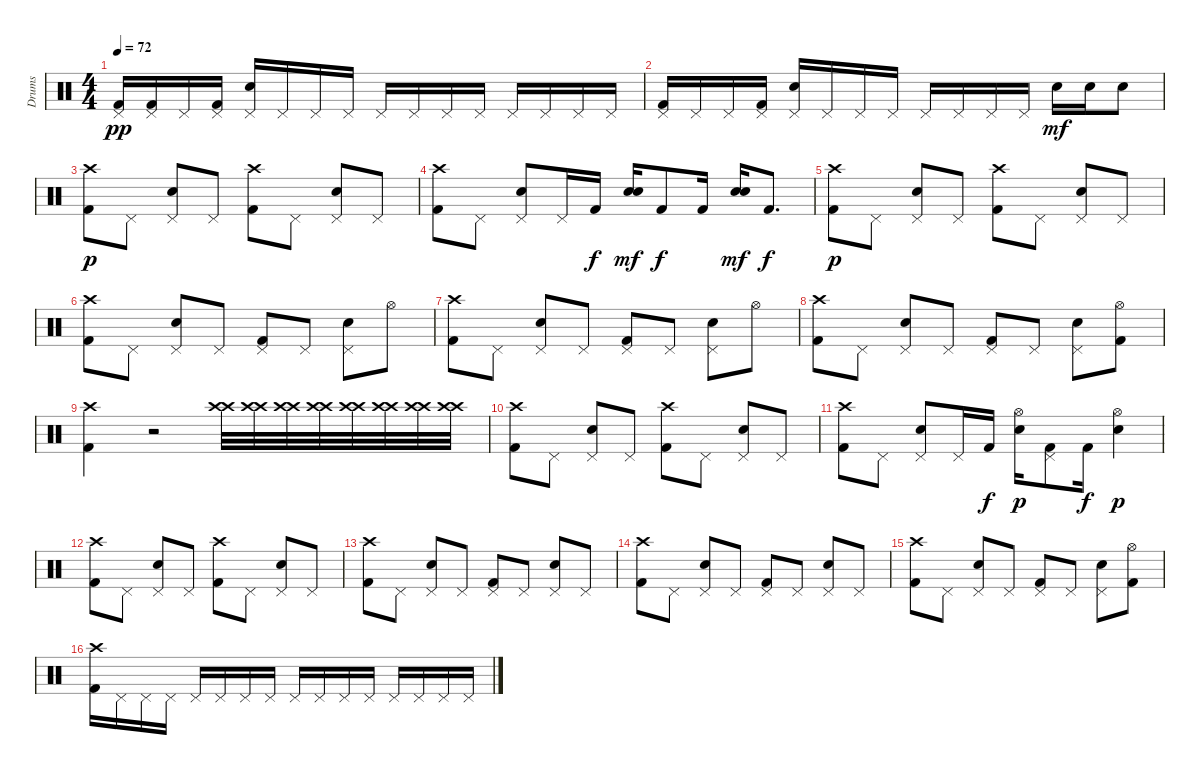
\track ("Drums" "Drums") {instrument percussion}
\staff {score}
\articulation defaults
\ts (4 4)
\tempo 72
\clef neutral
\ks c
("Kick (hit) 2" "Pedal Hi-Hat (hit)").16{dy pp} ("Kick (hit) 2" "Pedal Hi-Hat (hit)").16 "Pedal Hi-Hat (hit)".16 ("Kick (hit) 2" "Pedal Hi-Hat (hit)").16 ("Snare (hit) 2" "Pedal Hi-Hat (hit)").16 "Pedal Hi-Hat (hit)".16 "Pedal Hi-Hat (hit)".16 "Pedal Hi-Hat (hit)".16 "Pedal Hi-Hat (hit)".16 "Pedal Hi-Hat (hit)".16 "Pedal Hi-Hat (hit)".16 "Pedal Hi-Hat (hit)".16 "Pedal Hi-Hat (hit)".16 "Pedal Hi-Hat (hit)".16 "Pedal Hi-Hat (hit)".16 "Pedal Hi-Hat (hit)".16 |
("Kick (hit) 2" "Pedal Hi-Hat (hit)").16 "Pedal Hi-Hat (hit)".16 "Pedal Hi-Hat (hit)".16 ("Kick (hit) 2" "Pedal Hi-Hat (hit)").16 ("Snare (hit) 2" "Pedal Hi-Hat (hit)").16 "Pedal Hi-Hat (hit)".16 "Pedal Hi-Hat (hit)".16 "Pedal Hi-Hat (hit)".16 "Pedal Hi-Hat (hit)".16 "Pedal Hi-Hat (hit)".16 "Pedal Hi-Hat (hit)".16 "Pedal Hi-Hat (hit)".16 "Snare (hit) 2".16{dy mf} "Snare (hit) 2".16 "Snare (hit) 2".8 |
("Kick (hit) 2" "Crash high (hit)").8{dy p} "Pedal Hi-Hat (hit)".8 ("Snare (hit) 2" "Pedal Hi-Hat (hit)").8 "Pedal Hi-Hat (hit)".8 ("Kick (hit) 2" "Crash high (hit)").8 "Pedal Hi-Hat (hit)".8 ("Snare (hit) 2" "Pedal Hi-Hat (hit)").8 "Pedal Hi-Hat (hit)".8 |
("Kick (hit) 2" "Crash high (hit)").8 "Pedal Hi-Hat (hit)".8 ("Snare (hit) 2" "Pedal Hi-Hat (hit)").8 "Pedal Hi-Hat (hit)".16 "Kick (hit) 2".16{dy f} ("Snare (hit) 2" "Snare (hit) 2").16{dy mf} "Kick (hit) 2".8{dy f} "Kick (hit) 2".16 ("Snare (hit) 2" "Snare (hit) 2").16{dy mf} "Kick (hit) 2".8{d dy f} |
("Kick (hit) 2" "Crash high (hit)").8{dy p} "Pedal Hi-Hat (hit)".8 ("Snare (hit) 2" "Pedal Hi-Hat (hit)").8 "Pedal Hi-Hat (hit)".8 ("Kick (hit) 2" "Crash high (hit)").8 "Pedal Hi-Hat (hit)".8 ("Snare (hit) 2" "Pedal Hi-Hat (hit)").8 "Pedal Hi-Hat (hit)".8 |
("Kick (hit) 2" "Crash high (hit)").8 "Pedal Hi-Hat (hit)".8 ("Snare (hit) 2" "Pedal Hi-Hat (hit)").8 "Pedal Hi-Hat (hit)".8 ("Kick (hit) 2" "Pedal Hi-Hat (hit)").8 "Pedal Hi-Hat (hit)".8 ("Snare (hit) 2" "Pedal Hi-Hat (hit)").8 "Hi-Hat (open)".8 |
("Kick (hit) 2" "Crash high (hit)").8 "Pedal Hi-Hat (hit)".8 ("Snare (hit) 2" "Pedal Hi-Hat (hit)").8 "Pedal Hi-Hat (hit)".8 ("Kick (hit) 2" "Pedal Hi-Hat (hit)").8 "Pedal Hi-Hat (hit)".8 ("Snare (hit) 2" "Pedal Hi-Hat (hit)").8 "Hi-Hat (open)".8 |
("Kick (hit) 2" "Crash high (hit)").8 "Pedal Hi-Hat (hit)".8 ("Snare (hit) 2" "Pedal Hi-Hat (hit)").8 "Pedal Hi-Hat (hit)".8 ("Kick (hit) 2" "Pedal Hi-Hat (hit)").8 "Pedal Hi-Hat (hit)".8 ("Snare (hit) 2" "Pedal Hi-Hat (hit)").8 ("Kick (hit) 2" "Hi-Hat (open)").8 |
("Kick (hit) 2" "Crash high (hit)").4 r.2 ("Crash high (hit)" "Crash high (hit)").32 ("Crash high (hit)" "Crash high (hit)").32 ("Crash high (hit)" "Crash high (hit)").32 ("Crash high (hit)" "Crash high (hit)").32 ("Crash high (hit)" "Crash high (hit)").32 ("Crash high (hit)" "Crash high (hit)").32 ("Crash high (hit)" "Crash high (hit)").32 ("Crash high (hit)" "Crash high (hit)").32 |
("Kick (hit) 2" "Crash high (hit)").8 "Pedal Hi-Hat (hit)".8 ("Snare (hit) 2" "Pedal Hi-Hat (hit)").8 "Pedal Hi-Hat (hit)".8 ("Kick (hit) 2" "Crash high (hit)").8 "Pedal Hi-Hat (hit)".8 ("Snare (hit) 2" "Pedal Hi-Hat (hit)").8 "Pedal Hi-Hat (hit)".8 |
("Kick (hit) 2" "Crash high (hit)").8 "Pedal Hi-Hat (hit)".8 ("Snare (hit) 2" "Pedal Hi-Hat (hit)").8 "Pedal Hi-Hat (hit)".16 "Kick (hit) 2".16{dy f} ("Snare (hit) 2" "Hi-Hat (open)").16{dy p} ("Kick (hit) 2" "Pedal Hi-Hat (hit)").8 "Kick (hit) 2".16{dy f} ("Snare (hit) 2" "Hi-Hat (open)").4{dy p} |
("Kick (hit) 2" "Crash high (hit)").8 "Pedal Hi-Hat (hit)".8 ("Snare (hit) 2" "Pedal Hi-Hat (hit)").8 "Pedal Hi-Hat (hit)".8 ("Kick (hit) 2" "Crash high (hit)").8 "Pedal Hi-Hat (hit)".8 ("Snare (hit) 2" "Pedal Hi-Hat (hit)").8 "Pedal Hi-Hat (hit)".8 |
("Kick (hit) 2" "Crash high (hit)").8 "Pedal Hi-Hat (hit)".8 ("Snare (hit) 2" "Pedal Hi-Hat (hit)").8 "Pedal Hi-Hat (hit)".8 ("Kick (hit) 2" "Pedal Hi-Hat (hit)").8 "Pedal Hi-Hat (hit)".8 ("Snare (hit) 2" "Pedal Hi-Hat (hit)").8 "Pedal Hi-Hat (hit)".8 |
("Kick (hit) 2" "Crash high (hit)").8 "Pedal Hi-Hat (hit)".8 ("Snare (hit) 2" "Pedal Hi-Hat (hit)").8 "Pedal Hi-Hat (hit)".8 ("Kick (hit) 2" "Pedal Hi-Hat (hit)").8 "Pedal Hi-Hat (hit)".8 ("Snare (hit) 2" "Pedal Hi-Hat (hit)").8 "Pedal Hi-Hat (hit)".8 |
("Kick (hit) 2" "Crash high (hit)").8 "Pedal Hi-Hat (hit)".8 ("Snare (hit) 2" "Pedal Hi-Hat (hit)").8 "Pedal Hi-Hat (hit)".8 ("Kick (hit) 2" "Pedal Hi-Hat (hit)").8 "Pedal Hi-Hat (hit)".8 ("Snare (hit) 2" "Pedal Hi-Hat (hit)").8 ("Kick (hit) 2" "Hi-Hat (open)").8 |
("Kick (hit) 2" "Crash high (hit)").16 "Pedal Hi-Hat (hit)".16 "Pedal Hi-Hat (hit)".16 "Pedal Hi-Hat (hit)".16 "Pedal Hi-Hat (hit)".16 "Pedal Hi-Hat (hit)".16 "Pedal Hi-Hat (hit)".16 "Pedal Hi-Hat (hit)".16 "Pedal Hi-Hat (hit)".16 "Pedal Hi-Hat (hit)".16 "Pedal Hi-Hat (hit)".16 "Pedal Hi-Hat (hit)".16 "Pedal Hi-Hat (hit)".16 "Pedal Hi-Hat (hit)".16 "Pedal Hi-Hat (hit)".16 "Pedal Hi-Hat (hit)".16
